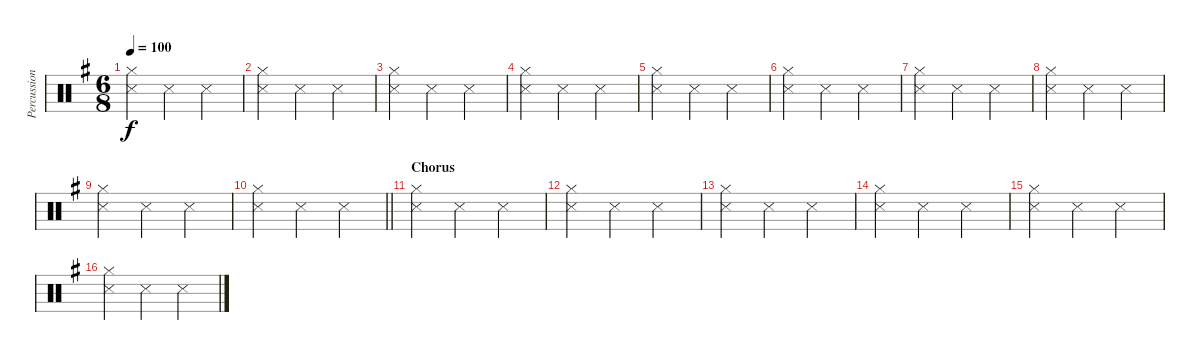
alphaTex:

\track ("Percussion" "Percussion") {mute instrument percussion}
\staff {score}
\articulation defaults
\ts (6 8)
\tempo 100
\clef neutral
\ks g
("Hi-Hat (closed)" "Snare (side stick) 3").4{dy f} "Snare (side stick) 3".4 "Snare (side stick) 3".4 |
("Hi-Hat (closed)" "Snare (side stick) 3").4 "Snare (side stick) 3".4 "Snare (side stick) 3".4 |
("Hi-Hat (closed)" "Snare (side stick) 3").4 "Snare (side stick) 3".4 "Snare (side stick) 3".4 |
("Hi-Hat (closed)" "Snare (side stick) 3").4 "Snare (side stick) 3".4 "Snare (side stick) 3".4 |
("Hi-Hat (closed)" "Snare (side stick) 3").4 "Snare (side stick) 3".4 "Snare (side stick) 3".4 |
("Hi-Hat (closed)" "Snare (side stick) 3").4 "Snare (side stick) 3".4 "Snare (side stick) 3".4 |
("Hi-Hat (closed)" "Snare (side stick) 3").4 "Snare (side stick) 3".4 "Snare (side stick) 3".4 |
("Hi-Hat (closed)" "Snare (side stick) 3").4 "Snare (side stick) 3".4 "Snare (side stick) 3".4 |
("Hi-Hat (closed)" "Snare (side stick) 3").4 "Snare (side stick) 3".4 "Snare (side stick) 3".4 |
\barLineRight lightlight
("Hi-Hat (closed)" "Snare (side stick) 3").4 "Snare (side stick) 3".4 "Snare (side stick) 3".4 |
\section ("" "Chorus")
("Hi-Hat (closed)" "Snare (side stick) 3").4 "Snare (side stick) 3".4 "Snare (side stick) 3".4 |
("Hi-Hat (closed)" "Snare (side stick) 3").4 "Snare (side stick) 3".4 "Snare (side stick) 3".4 |
("Hi-Hat (closed)" "Snare (side stick) 3").4 "Snare (side stick) 3".4 "Snare (side stick) 3".4 |
("Hi-Hat (closed)" "Snare (side stick) 3").4 "Snare (side stick) 3".4 "Snare (side stick) 3".4 |
("Hi-Hat (closed)" "Snare (side stick) 3").4 "Snare (side stick) 3".4 "Snare (side stick) 3".4 |
("Hi-Hat (closed)" "Snare (side stick) 3").4 "Snare (side stick) 3".4 "Snare (side stick) 3".4
